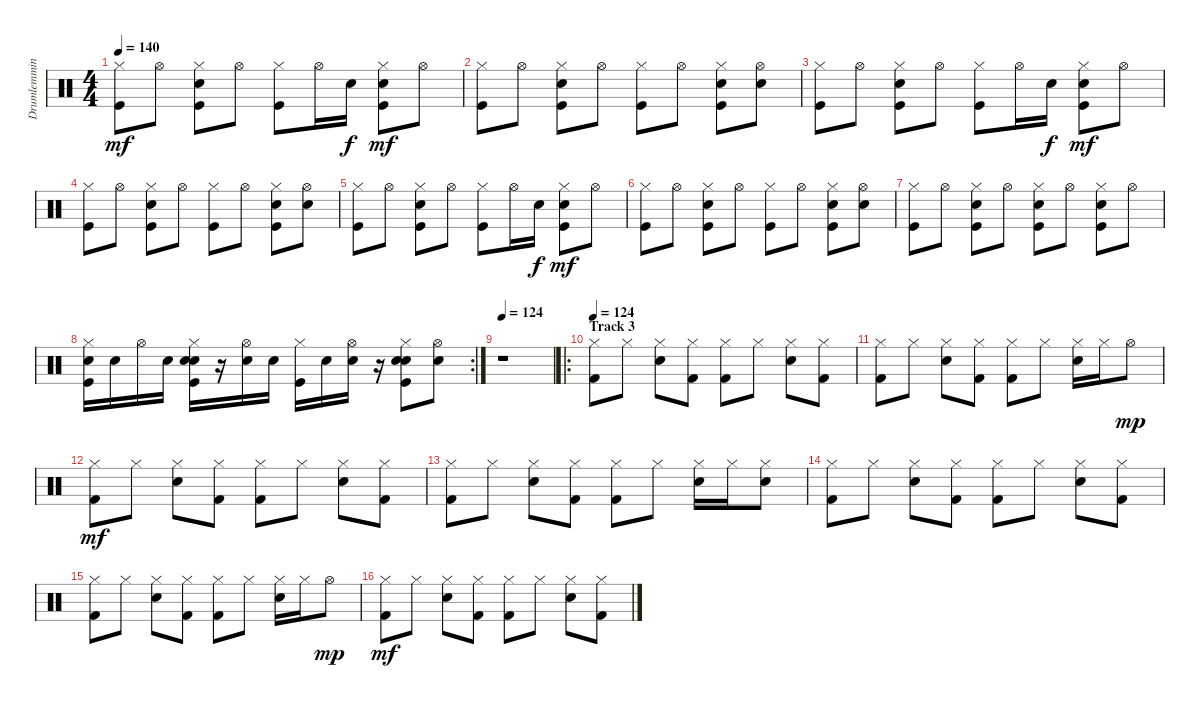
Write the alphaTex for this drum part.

\track ("Drumlemming" "Drumlemmin") {instrument percussion}
\staff {score}
\articulation defaults
\ts (4 4)
\tempo 140
\clef neutral
\ks c
("Hi-Hat (closed)" "Kick (hit)").8{dy mf} "Hi-Hat (open)".8 ("Hi-Hat (closed)" "Snare (hit) 2" "Kick (hit)").8 "Hi-Hat (open)".8 ("Hi-Hat (closed)" "Kick (hit)").8 "Hi-Hat (open)".16 "Snare (hit) 2".16{dy f} ("Hi-Hat (closed)" "Snare (hit) 2" "Kick (hit)").8{dy mf} "Hi-Hat (open)".8 |
("Hi-Hat (closed)" "Kick (hit)").8 "Hi-Hat (open)".8 ("Hi-Hat (closed)" "Snare (hit) 2" "Kick (hit)").8 "Hi-Hat (open)".8 ("Hi-Hat (closed)" "Kick (hit)").8 "Hi-Hat (open)".8 ("Hi-Hat (closed)" "Snare (hit) 2" "Kick (hit)").8 ("Hi-Hat (open)" "Snare (hit) 2").8 |
("Hi-Hat (closed)" "Kick (hit)").8 "Hi-Hat (open)".8 ("Hi-Hat (closed)" "Snare (hit) 2" "Kick (hit)").8 "Hi-Hat (open)".8 ("Hi-Hat (closed)" "Kick (hit)").8 "Hi-Hat (open)".16 "Snare (hit) 2".16{dy f} ("Hi-Hat (closed)" "Snare (hit) 2" "Kick (hit)").8{dy mf} "Hi-Hat (open)".8 |
("Hi-Hat (closed)" "Kick (hit)").8 "Hi-Hat (open)".8 ("Hi-Hat (closed)" "Snare (hit) 2" "Kick (hit)").8 "Hi-Hat (open)".8 ("Hi-Hat (closed)" "Kick (hit)").8 "Hi-Hat (open)".8 ("Hi-Hat (closed)" "Snare (hit) 2" "Kick (hit)").8 ("Hi-Hat (open)" "Snare (hit) 2").8 |
("Hi-Hat (closed)" "Kick (hit)").8 "Hi-Hat (open)".8 ("Hi-Hat (closed)" "Snare (hit) 2" "Kick (hit)").8 "Hi-Hat (open)".8 ("Hi-Hat (closed)" "Kick (hit)").8 "Hi-Hat (open)".16 "Snare (hit) 2".16{dy f} ("Hi-Hat (closed)" "Snare (hit) 2" "Kick (hit)").8{dy mf} "Hi-Hat (open)".8 |
("Hi-Hat (closed)" "Kick (hit)").8 "Hi-Hat (open)".8 ("Hi-Hat (closed)" "Snare (hit) 2" "Kick (hit)").8 "Hi-Hat (open)".8 ("Hi-Hat (closed)" "Kick (hit)").8 "Hi-Hat (open)".8 ("Hi-Hat (closed)" "Snare (hit) 2" "Kick (hit)").8 ("Hi-Hat (open)" "Snare (hit) 2").8 |
("Hi-Hat (closed)" "Kick (hit)").8 "Hi-Hat (open)".8 ("Hi-Hat (closed)" "Snare (hit) 2" "Kick (hit)").8 "Hi-Hat (open)".8 ("Hi-Hat (closed)" "Snare (hit) 2" "Kick (hit)").8 "Hi-Hat (open)".8 ("Hi-Hat (closed)" "Snare (hit) 2" "Kick (hit)").8 "Hi-Hat (open)".8 |
\rc 2
("Hi-Hat (closed)" "Hand Clap (hit)" "Kick (hit)").16 "Hand Clap (hit)".16 "Hi-Hat (open)".16 "Hand Clap (hit)".16 ("Hi-Hat (closed)" "Hand Clap (hit)" "Snare (hit) 2" "Kick (hit)").16 r.16 ("Hi-Hat (open)" "Hand Clap (hit)").16 "Hand Clap (hit)".16 ("Hi-Hat (closed)" "Kick (hit)").16 "Hand Clap (hit)".16 ("Hi-Hat (open)" "Hand Clap (hit)").16 r.16 ("Hi-Hat (closed)" "Hand Clap (hit)" "Snare (hit) 2" "Kick (hit)").8 ("Hi-Hat (open)" "Hand Clap (hit)").8 |
\tempo 124
r.1 |
\ro
\section ("" "Track 3")
\tempo 124
("Hi-Hat (closed)" "Kick (hit) 2").8 "Hi-Hat (closed)".8 ("Snare (hit) 2" "Hi-Hat (closed)").8 ("Hi-Hat (closed)" "Kick (hit) 2").8 ("Hi-Hat (closed)" "Kick (hit) 2").8 "Hi-Hat (closed)".8 ("Snare (hit) 2" "Hi-Hat (closed)").8 ("Hi-Hat (closed)" "Kick (hit) 2").8 |
("Hi-Hat (closed)" "Kick (hit) 2").8 "Hi-Hat (closed)".8 ("Snare (hit) 2" "Hi-Hat (closed)").8 ("Hi-Hat (closed)" "Kick (hit) 2").8 ("Hi-Hat (closed)" "Kick (hit) 2").8 "Hi-Hat (closed)".8 ("Snare (hit) 2" "Hi-Hat (closed)").16 "Hi-Hat (closed)".16 "Hi-Hat (open)".8{dy mp} |
("Hi-Hat (closed)" "Kick (hit) 2").8{dy mf} "Hi-Hat (closed)".8 ("Snare (hit) 2" "Hi-Hat (closed)").8 ("Hi-Hat (closed)" "Kick (hit) 2").8 ("Hi-Hat (closed)" "Kick (hit) 2").8 "Hi-Hat (closed)".8 ("Snare (hit) 2" "Hi-Hat (closed)").8 ("Hi-Hat (closed)" "Kick (hit) 2").8 |
("Hi-Hat (closed)" "Kick (hit) 2").8 "Hi-Hat (closed)".8 ("Snare (hit) 2" "Hi-Hat (closed)").8 ("Hi-Hat (closed)" "Kick (hit) 2").8 ("Hi-Hat (closed)" "Kick (hit) 2").8 "Hi-Hat (closed)".8 ("Snare (hit) 2" "Hi-Hat (closed)").16 "Hi-Hat (closed)".16 ("Snare (hit) 2" "Hi-Hat (closed)").8 |
("Hi-Hat (closed)" "Kick (hit) 2").8 "Hi-Hat (closed)".8 ("Snare (hit) 2" "Hi-Hat (closed)").8 ("Hi-Hat (closed)" "Kick (hit) 2").8 ("Hi-Hat (closed)" "Kick (hit) 2").8 "Hi-Hat (closed)".8 ("Snare (hit) 2" "Hi-Hat (closed)").8 ("Hi-Hat (closed)" "Kick (hit) 2").8 |
("Hi-Hat (closed)" "Kick (hit) 2").8 "Hi-Hat (closed)".8 ("Snare (hit) 2" "Hi-Hat (closed)").8 ("Hi-Hat (closed)" "Kick (hit) 2").8 ("Hi-Hat (closed)" "Kick (hit) 2").8 "Hi-Hat (closed)".8 ("Snare (hit) 2" "Hi-Hat (closed)").16 "Hi-Hat (closed)".16 "Hi-Hat (open)".8{dy mp} |
("Hi-Hat (closed)" "Kick (hit) 2").8{dy mf} "Hi-Hat (closed)".8 ("Snare (hit) 2" "Hi-Hat (closed)").8 ("Hi-Hat (closed)" "Kick (hit) 2").8 ("Hi-Hat (closed)" "Kick (hit) 2").8 "Hi-Hat (closed)".8 ("Snare (hit) 2" "Hi-Hat (closed)").8 ("Hi-Hat (closed)" "Kick (hit) 2").8
